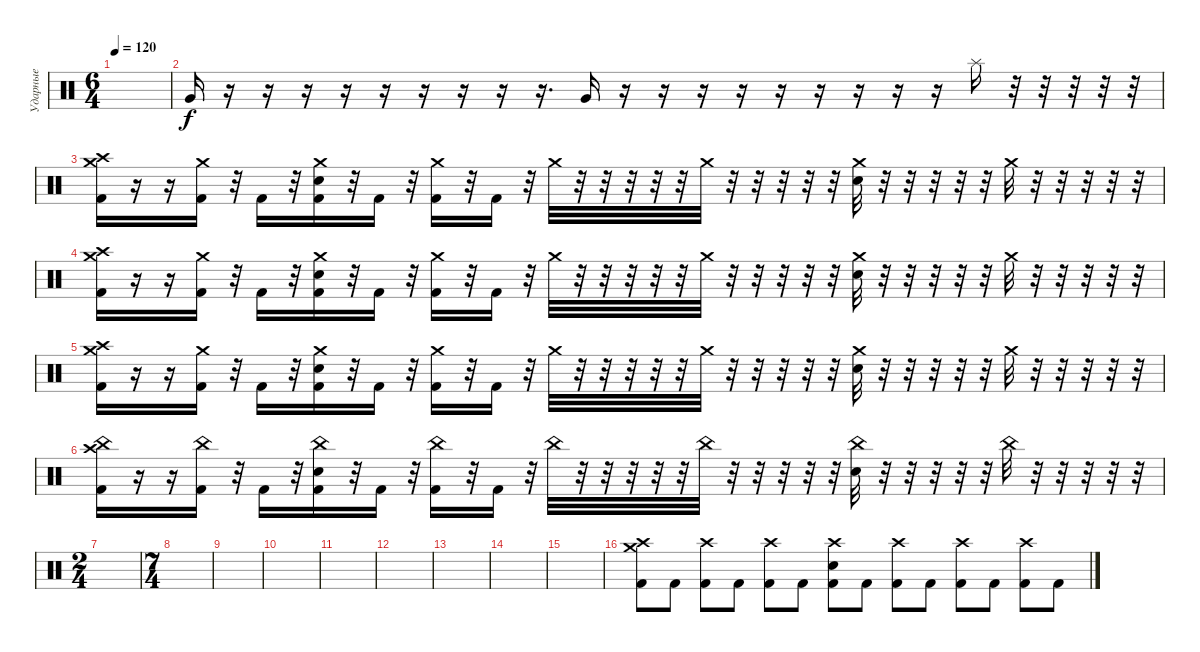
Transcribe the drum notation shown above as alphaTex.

\track ("Ударные" "Ударные") {instrument percussion}
\staff {score}
\articulation defaults
\ts (6 4)
\tempo 120
\clef neutral
\ks c
|
"Very Low Tom (hit)".16 r.16 r.16 r.16 r.16 r.16 r.16 r.16 r.16 r.16{d} "Very Low Tom (hit)".16 r.16 r.16 r.16 r.16 r.16 r.16 r.16 r.16 r.16 "Splash (hit)".16 r.32 r.32 r.32 r.32 r.32 |
("Crash medium (hit)" "Crash high (hit)" "Kick (hit) 2").16 r.16 r.16 ("Crash medium (hit)" "Kick (hit) 2").16 r.32 "Kick (hit) 2".16 r.32 ("Crash medium (hit)" "Electric Snare (hit)" "Kick (hit) 2").16 r.32 "Kick (hit) 2".16 r.32 ("Crash medium (hit)" "Kick (hit) 2").16 r.32 "Kick (hit) 2".16 r.32 "Crash medium (hit)".32 r.32 r.32 r.32 r.32 r.32 "Crash medium (hit)".32 r.32 r.32 r.32 r.32 r.32 ("Crash medium (hit)" "Electric Snare (hit)").32 r.32 r.32 r.32 r.32 r.32 "Crash medium (hit)".32 r.32 r.32 r.32 r.32 r.32 |
("Crash medium (hit)" "Crash high (hit)" "Kick (hit) 2").16 r.16 r.16 ("Crash medium (hit)" "Kick (hit) 2").16 r.32 "Kick (hit) 2".16 r.32 ("Crash medium (hit)" "Electric Snare (hit)" "Kick (hit) 2").16 r.32 "Kick (hit) 2".16 r.32 ("Crash medium (hit)" "Kick (hit) 2").16 r.32 "Kick (hit) 2".16 r.32 "Crash medium (hit)".32 r.32 r.32 r.32 r.32 r.32 "Crash medium (hit)".32 r.32 r.32 r.32 r.32 r.32 ("Crash medium (hit)" "Electric Snare (hit)").32 r.32 r.32 r.32 r.32 r.32 "Crash medium (hit)".32 r.32 r.32 r.32 r.32 r.32 |
("Crash medium (hit)" "Crash high (hit)" "Kick (hit) 2").16 r.16 r.16 ("Crash medium (hit)" "Kick (hit) 2").16 r.32 "Kick (hit) 2".16 r.32 ("Crash medium (hit)" "Electric Snare (hit)" "Kick (hit) 2").16 r.32 "Kick (hit) 2".16 r.32 ("Crash medium (hit)" "Kick (hit) 2").16 r.32 "Kick (hit) 2".16 r.32 "Crash medium (hit)".32 r.32 r.32 r.32 r.32 r.32 "Crash medium (hit)".32 r.32 r.32 r.32 r.32 r.32 ("Crash medium (hit)" "Electric Snare (hit)").32 r.32 r.32 r.32 r.32 r.32 "Crash medium (hit)".32 r.32 r.32 r.32 r.32 r.32 |
("China (hit)" "Crash high (hit)" "Kick (hit) 2").16 r.16 r.16 ("China (hit)" "Kick (hit) 2").16 r.32 "Kick (hit) 2".16 r.32 ("China (hit)" "Electric Snare (hit)" "Kick (hit) 2").16 r.32 "Kick (hit) 2".16 r.32 ("China (hit)" "Kick (hit) 2").16 r.32 "Kick (hit) 2".16 r.32 "China (hit)".32 r.32 r.32 r.32 r.32 r.32 "China (hit)".32 r.32 r.32 r.32 r.32 r.32 ("China (hit)" "Electric Snare (hit)").32 r.32 r.32 r.32 r.32 r.32 "China (hit)".32 r.32 r.32 r.32 r.32 r.32 |
\ts (2 4)
|
\ts (7 4)
|
|
|
|
|
|
|
|
("Crash high (hit)" "Crash medium (hit)" "Kick (hit) 2").8 "Kick (hit) 2".8 ("Crash high (hit)" "Kick (hit) 2").8 "Kick (hit) 2".8 ("Crash high (hit)" "Kick (hit) 2").8 "Kick (hit) 2".8 ("Crash high (hit)" "Electric Snare (hit)" "Kick (hit) 2").8 "Kick (hit) 2".8 ("Crash high (hit)" "Kick (hit) 2").8 "Kick (hit) 2".8 ("Crash high (hit)" "Kick (hit) 2").8 "Kick (hit) 2".8 ("Crash high (hit)" "Kick (hit) 2").8 "Kick (hit) 2".8
